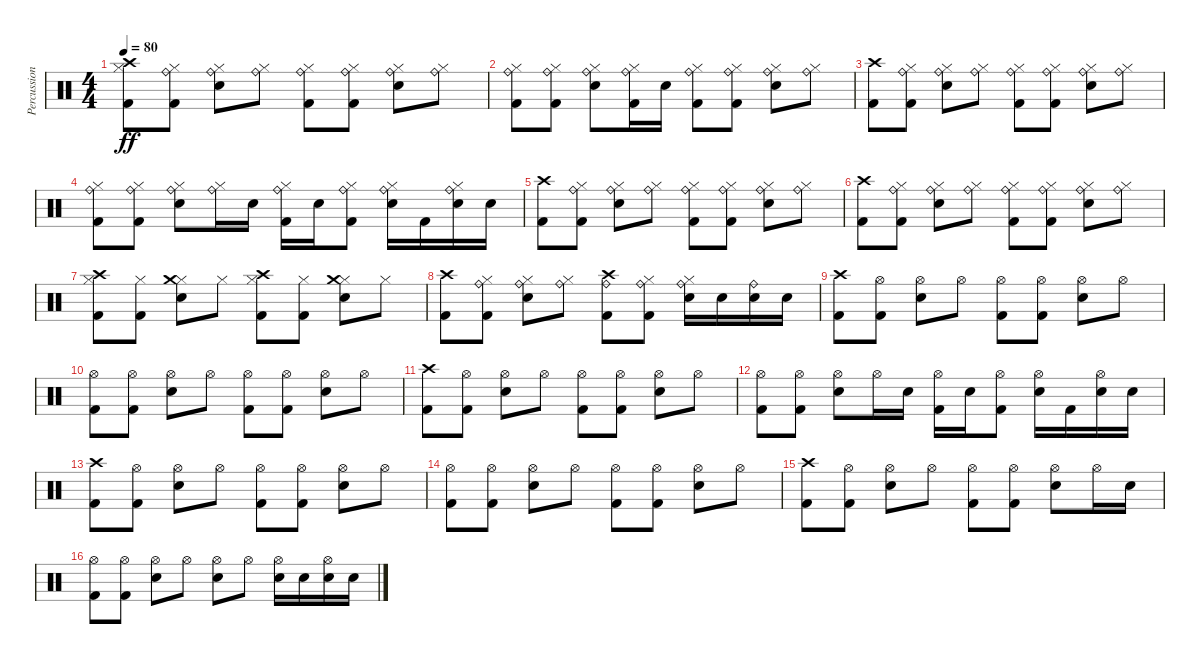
\track ("Percussions" "Percussion") {instrument percussion}
\staff {score}
\articulation defaults
\ts (4 4)
\tempo 80
\clef neutral
\ks c
("Kick (hit) 2" "Hi-Hat (closed)" "Crash high (hit)").8{dy ff} ("Kick (hit) 2" "Hi-Hat (closed)" "Ride (bell)").8 ("Snare (hit) 2" "Hi-Hat (closed)" "Ride (bell)").8 ("Hi-Hat (closed)" "Ride (bell)").8 ("Kick (hit) 2" "Hi-Hat (closed)" "Ride (bell)").8 ("Kick (hit) 2" "Hi-Hat (closed)" "Ride (bell)").8 ("Snare (hit) 2" "Hi-Hat (closed)" "Ride (bell)").8 ("Hi-Hat (closed)" "Ride (bell)").8 |
("Kick (hit) 2" "Hi-Hat (closed)" "Ride (bell)").8 ("Kick (hit) 2" "Hi-Hat (closed)" "Ride (bell)").8 ("Snare (hit) 2" "Hi-Hat (closed)" "Ride (bell)").8 ("Kick (hit) 2" "Hi-Hat (closed)" "Ride (bell)").16 "Snare (hit) 2".16 ("Kick (hit) 2" "Hi-Hat (closed)" "Ride (bell)").8 ("Kick (hit) 2" "Hi-Hat (closed)" "Ride (bell)").8 ("Snare (hit) 2" "Hi-Hat (closed)" "Ride (bell)").8 ("Hi-Hat (closed)" "Ride (bell)").8 |
("Kick (hit) 2" "Crash high (hit)").8 ("Kick (hit) 2" "Hi-Hat (closed)" "Ride (bell)").8 ("Snare (hit) 2" "Hi-Hat (closed)" "Ride (bell)").8 ("Hi-Hat (closed)" "Ride (bell)").8 ("Kick (hit) 2" "Hi-Hat (closed)" "Ride (bell)").8 ("Kick (hit) 2" "Hi-Hat (closed)" "Ride (bell)").8 ("Snare (hit) 2" "Hi-Hat (closed)" "Ride (bell)").8 ("Hi-Hat (closed)" "Ride (bell)").8 |
("Kick (hit) 2" "Hi-Hat (closed)" "Ride (bell)").8 ("Kick (hit) 2" "Hi-Hat (closed)" "Ride (bell)").8 ("Snare (hit) 2" "Hi-Hat (closed)" "Ride (bell)").8 ("Hi-Hat (closed)" "Ride (bell)").16 "Snare (hit) 2".16 ("Kick (hit) 2" "Hi-Hat (closed)" "Ride (bell)").16 "Snare (hit) 2".16 ("Kick (hit) 2" "Hi-Hat (closed)" "Ride (bell)").8 ("Snare (hit) 2" "Hi-Hat (closed)" "Ride (bell)").16 "Kick (hit) 2".16 ("Snare (hit) 2" "Hi-Hat (closed)" "Ride (bell)").16 "Snare (hit) 2".16 |
("Kick (hit) 2" "Crash high (hit)").8 ("Kick (hit) 2" "Hi-Hat (closed)" "Ride (bell)").8 ("Snare (hit) 2" "Hi-Hat (closed)" "Ride (bell)").8 ("Hi-Hat (closed)" "Ride (bell)").8 ("Kick (hit) 2" "Hi-Hat (closed)" "Ride (bell)").8 ("Kick (hit) 2" "Hi-Hat (closed)" "Ride (bell)").8 ("Snare (hit) 2" "Hi-Hat (closed)" "Ride (bell)").8 ("Hi-Hat (closed)" "Ride (bell)").8 |
("Kick (hit) 2" "Crash high (hit)").8 ("Kick (hit) 2" "Hi-Hat (closed)" "Ride (bell)").8 ("Snare (hit) 2" "Hi-Hat (closed)" "Ride (bell)").8 ("Hi-Hat (closed)" "Ride (bell)").8 ("Kick (hit) 2" "Hi-Hat (closed)" "Ride (bell)").8 ("Kick (hit) 2" "Hi-Hat (closed)" "Ride (bell)").8 ("Snare (hit) 2" "Hi-Hat (closed)" "Ride (bell)").8 ("Hi-Hat (closed)" "Ride (bell)").8 |
("Kick (hit) 2" "Hi-Hat (closed)" "Crash high (hit)").8 ("Kick (hit) 2" "Hi-Hat (closed)").8 ("Snare (hit) 2" "Hi-Hat (closed)" "Crash medium (hit)").8 "Hi-Hat (closed)".8 ("Kick (hit) 2" "Hi-Hat (closed)" "Crash high (hit)").8 ("Kick (hit) 2" "Hi-Hat (closed)").8 ("Snare (hit) 2" "Hi-Hat (closed)" "Crash medium (hit)").8 "Hi-Hat (closed)".8 |
("Kick (hit) 2" "Crash high (hit)").8 ("Kick (hit) 2" "Hi-Hat (closed)" "Ride (bell)").8 ("Snare (hit) 2" "Hi-Hat (closed)" "Ride (bell)").8 ("Hi-Hat (closed)" "Ride (bell)").8 ("Kick (hit) 2" "Crash high (hit)" "Ride (bell)").8 ("Kick (hit) 2" "Hi-Hat (closed)" "Ride (bell)").8 ("Snare (hit) 2" "Hi-Hat (closed)" "Ride (bell)").16 "Snare (hit) 2".16 ("Snare (hit) 2" "Ride (bell)").16 "Snare (hit) 2".16 |
("Kick (hit) 2" "Crash high (hit)").8 ("Kick (hit) 2" "Hi-Hat (open)").8 ("Snare (hit) 2" "Hi-Hat (open)").8 "Hi-Hat (open)".8 ("Kick (hit) 2" "Hi-Hat (open)").8 ("Kick (hit) 2" "Hi-Hat (open)").8 ("Snare (hit) 2" "Hi-Hat (open)").8 "Hi-Hat (open)".8 |
("Kick (hit) 2" "Hi-Hat (open)").8 ("Kick (hit) 2" "Hi-Hat (open)").8 ("Snare (hit) 2" "Hi-Hat (open)").8 "Hi-Hat (open)".8 ("Kick (hit) 2" "Hi-Hat (open)").8 ("Kick (hit) 2" "Hi-Hat (open)").8 ("Snare (hit) 2" "Hi-Hat (open)").8 "Hi-Hat (open)".8 |
("Kick (hit) 2" "Crash high (hit)").8 ("Kick (hit) 2" "Hi-Hat (open)").8 ("Snare (hit) 2" "Hi-Hat (open)").8 "Hi-Hat (open)".8 ("Kick (hit) 2" "Hi-Hat (open)").8 ("Kick (hit) 2" "Hi-Hat (open)").8 ("Snare (hit) 2" "Hi-Hat (open)").8 "Hi-Hat (open)".8 |
("Kick (hit) 2" "Hi-Hat (open)").8 ("Kick (hit) 2" "Hi-Hat (open)").8 ("Snare (hit) 2" "Hi-Hat (open)").8 "Hi-Hat (open)".16 "Snare (hit) 2".16 ("Kick (hit) 2" "Hi-Hat (open)").16 "Snare (hit) 2".16 ("Kick (hit) 2" "Hi-Hat (open)").8 ("Snare (hit) 2" "Hi-Hat (open)").16 "Kick (hit) 2".16 ("Snare (hit) 2" "Hi-Hat (open)").16 "Snare (hit) 2".16 |
("Kick (hit) 2" "Crash high (hit)").8 ("Kick (hit) 2" "Hi-Hat (open)").8 ("Snare (hit) 2" "Hi-Hat (open)").8 "Hi-Hat (open)".8 ("Kick (hit) 2" "Hi-Hat (open)").8 ("Kick (hit) 2" "Hi-Hat (open)").8 ("Snare (hit) 2" "Hi-Hat (open)").8 "Hi-Hat (open)".8 |
("Kick (hit) 2" "Hi-Hat (open)").8 ("Kick (hit) 2" "Hi-Hat (open)").8 ("Snare (hit) 2" "Hi-Hat (open)").8 "Hi-Hat (open)".8 ("Kick (hit) 2" "Hi-Hat (open)").8 ("Kick (hit) 2" "Hi-Hat (open)").8 ("Snare (hit) 2" "Hi-Hat (open)").8 "Hi-Hat (open)".8 |
("Kick (hit) 2" "Crash high (hit)").8 ("Kick (hit) 2" "Hi-Hat (open)").8 ("Snare (hit) 2" "Hi-Hat (open)").8 "Hi-Hat (open)".8 ("Kick (hit) 2" "Hi-Hat (open)").8 ("Kick (hit) 2" "Hi-Hat (open)").8 ("Snare (hit) 2" "Hi-Hat (open)").8 "Hi-Hat (open)".16 "Snare (hit) 2".16 |
("Kick (hit) 2" "Hi-Hat (open)").8 ("Kick (hit) 2" "Hi-Hat (open)").8 ("Snare (hit) 2" "Hi-Hat (open)").8 "Hi-Hat (open)".8 ("Snare (hit) 2" "Hi-Hat (open)").8 "Hi-Hat (open)".8 ("Snare (hit) 2" "Hi-Hat (open)").16 "Snare (hit) 2".16 ("Snare (hit) 2" "Hi-Hat (open)").16 "Snare (hit) 2".16
